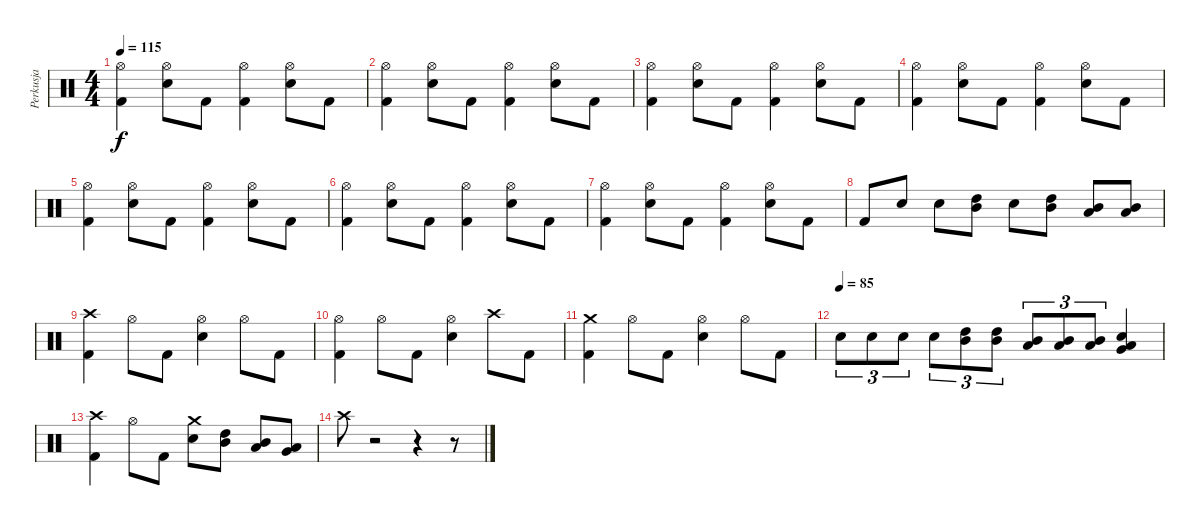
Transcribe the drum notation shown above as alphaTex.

\track ("Perkusja" "Perkusja") {instrument percussion}
\staff {score}
\articulation defaults
\ts (4 4)
\tempo 115
\clef neutral
\ks c
("Hi-Hat (open)" "Kick (hit) 2").4{dy f} ("Hi-Hat (open)" "Snare (hit) 2").8 "Kick (hit) 2".8 ("Hi-Hat (open)" "Kick (hit) 2").4 ("Hi-Hat (open)" "Snare (hit) 2").8 "Kick (hit) 2".8 |
("Hi-Hat (open)" "Kick (hit) 2").4 ("Hi-Hat (open)" "Snare (hit) 2").8 "Kick (hit) 2".8 ("Hi-Hat (open)" "Kick (hit) 2").4 ("Hi-Hat (open)" "Snare (hit) 2").8 "Kick (hit) 2".8 |
("Hi-Hat (open)" "Kick (hit) 2").4 ("Hi-Hat (open)" "Snare (hit) 2").8 "Kick (hit) 2".8 ("Hi-Hat (open)" "Kick (hit) 2").4 ("Hi-Hat (open)" "Snare (hit) 2").8 "Kick (hit) 2".8 |
("Hi-Hat (open)" "Kick (hit) 2").4 ("Hi-Hat (open)" "Snare (hit) 2").8 "Kick (hit) 2".8 ("Hi-Hat (open)" "Kick (hit) 2").4 ("Hi-Hat (open)" "Snare (hit) 2").8 "Kick (hit) 2".8 |
("Hi-Hat (open)" "Kick (hit) 2").4 ("Hi-Hat (open)" "Snare (hit) 2").8 "Kick (hit) 2".8 ("Hi-Hat (open)" "Kick (hit) 2").4 ("Hi-Hat (open)" "Snare (hit) 2").8 "Kick (hit) 2".8 |
("Hi-Hat (open)" "Kick (hit) 2").4 ("Hi-Hat (open)" "Snare (hit) 2").8 "Kick (hit) 2".8 ("Hi-Hat (open)" "Kick (hit) 2").4 ("Hi-Hat (open)" "Snare (hit) 2").8 "Kick (hit) 2".8 |
("Hi-Hat (open)" "Kick (hit) 2").4 ("Hi-Hat (open)" "Snare (hit) 2").8 "Kick (hit) 2".8 ("Hi-Hat (open)" "Kick (hit) 2").4 ("Hi-Hat (open)" "Snare (hit) 2").8 "Kick (hit) 2".8 |
"Kick (hit) 2".8 "Snare (hit) 2".8 "Snare (hit) 2".8 ("Mid Tom (hit)" "High Tom (hit)").8 "Snare (hit) 2".8 ("Mid Tom (hit)" "High Tom (hit)").8 ("Low Tom (hit)" "Mid Tom (hit)").8 ("Low Tom (hit)" "Mid Tom (hit)").8 |
("Crash high (hit)" "Kick (hit) 2").4 "Hi-Hat (open)".8 "Kick (hit) 2".8 ("Hi-Hat (open)" "Snare (hit) 2").4 "Hi-Hat (open)".8 "Kick (hit) 2".8 |
("Hi-Hat (open)" "Kick (hit) 2").4 "Hi-Hat (open)".8 "Kick (hit) 2".8 ("Hi-Hat (open)" "Snare (hit) 2").4 "Crash high (hit)".8 "Kick (hit) 2".8 |
("Crash medium (hit)" "Kick (hit) 2").4 "Hi-Hat (open)".8 "Kick (hit) 2".8 ("Hi-Hat (open)" "Snare (hit) 2").4 "Hi-Hat (open)".8 "Kick (hit) 2".8 |
\tempo (85)
"Snare (hit) 2".8{tu (3 2)} "Snare (hit) 2".8{tu (3 2)} "Snare (hit) 2".8{tu (3 2)} "Snare (hit) 2".8{tu (3 2)} ("High Tom (hit)" "Mid Tom (hit)").8{tu (3 2)} ("High Tom (hit)" "Mid Tom (hit)").8{tu (3 2)} ("Mid Tom (hit)" "Low Tom (hit)").8{tu (3 2)} ("Mid Tom (hit)" "Low Tom (hit)").8{tu (3 2)} ("Mid Tom (hit)" "Low Tom (hit)").8{tu (3 2)} ("Low Tom (hit)" "Very Low Tom (hit)" "Snare (hit) 2").4 |
("Crash high (hit)" "Kick (hit) 2").4 "Hi-Hat (open)".8 "Kick (hit) 2".8 ("Crash medium (hit)" "Snare (hit) 2").8 ("Mid Tom (hit)" "High Tom (hit)").8 ("Low Tom (hit)" "Mid Tom (hit)").8 ("Very Low Tom (hit)" "Low Tom (hit)").8 |
"Crash high (hit)".8 r.2 r.4 r.8
